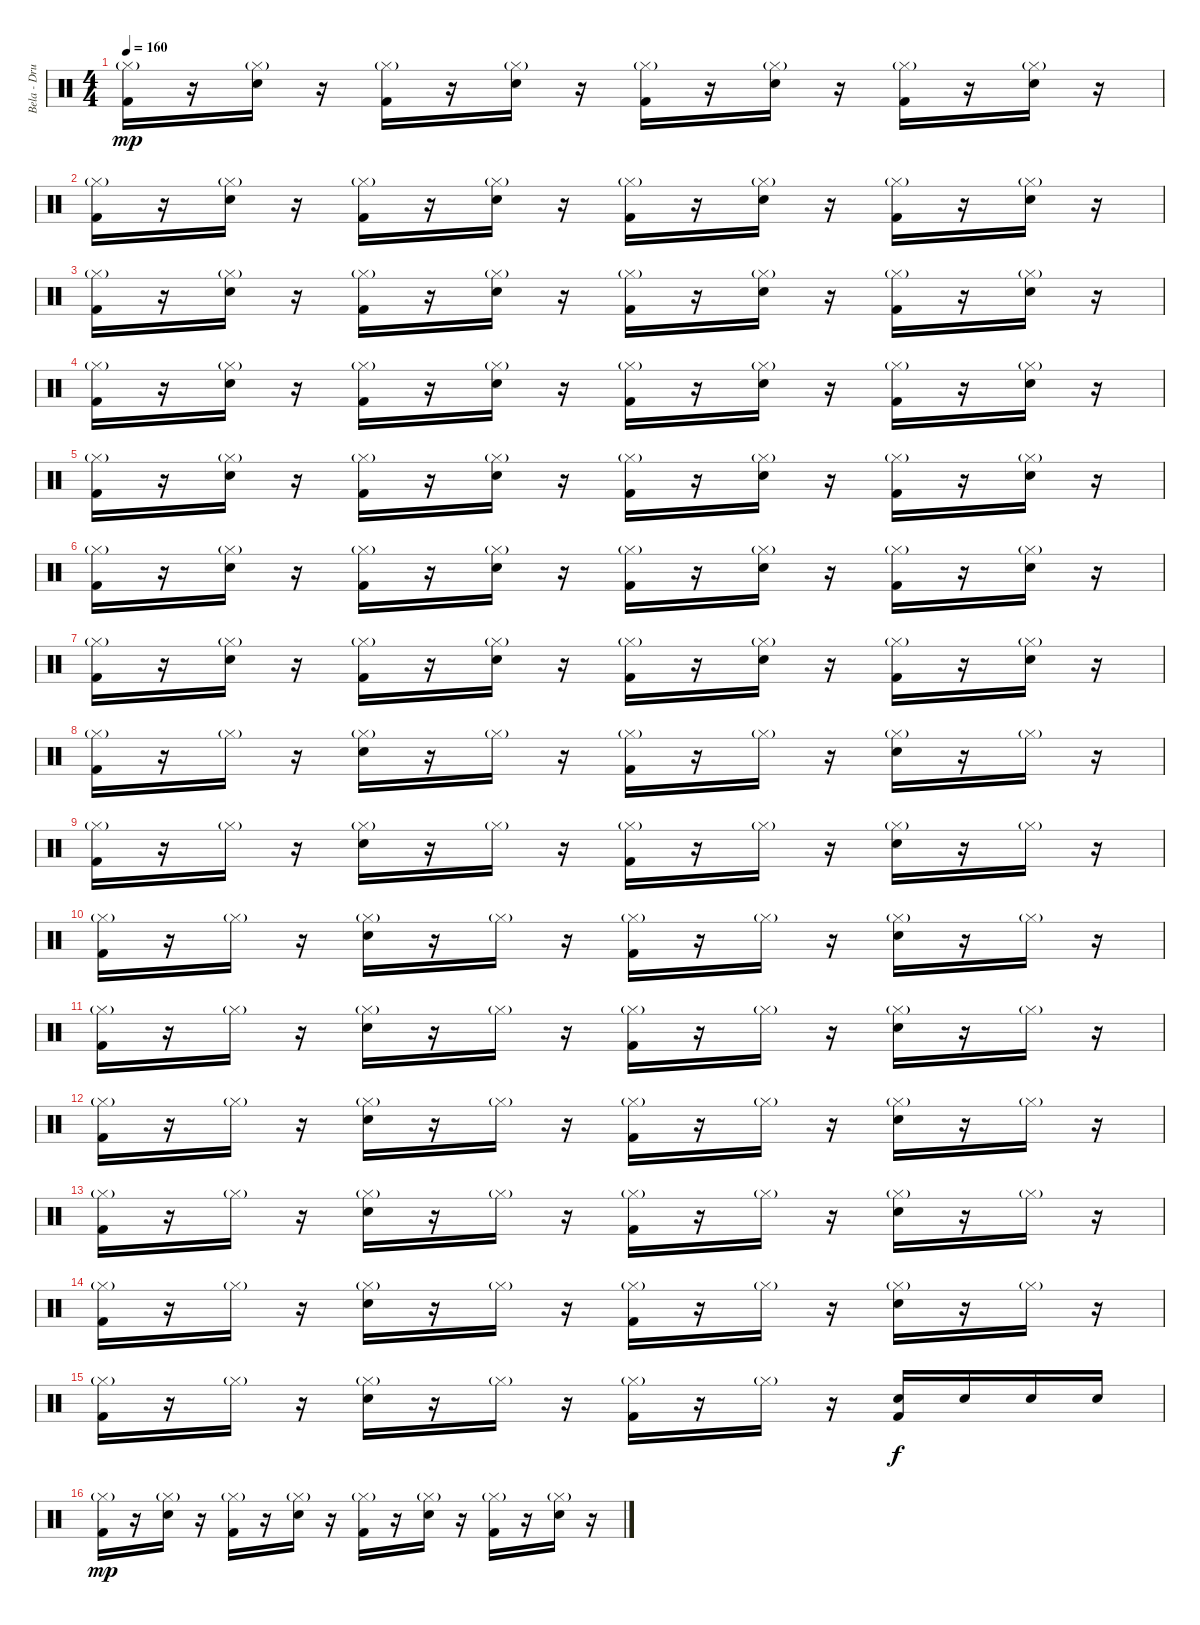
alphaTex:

\track ("Bela - Drums" "Bela - Dru") {instrument percussion}
\staff {score}
\articulation defaults
\ts (4 4)
\tempo 160
\clef neutral
\ks c
("Hi-Hat (closed)"{g} "Kick (hit) 2").16{dy mp} r.16 ("Hi-Hat (closed)"{g} "Electric Snare (hit)").16 r.16 ("Hi-Hat (closed)"{g} "Kick (hit) 2").16 r.16 ("Hi-Hat (closed)"{g} "Electric Snare (hit)").16 r.16 ("Hi-Hat (closed)"{g} "Kick (hit) 2").16 r.16 ("Hi-Hat (closed)"{g} "Electric Snare (hit)").16 r.16 ("Hi-Hat (closed)"{g} "Kick (hit) 2").16 r.16 ("Hi-Hat (closed)"{g} "Electric Snare (hit)").16 r.16 |
("Hi-Hat (closed)"{g} "Kick (hit) 2").16 r.16 ("Hi-Hat (closed)"{g} "Electric Snare (hit)").16 r.16 ("Hi-Hat (closed)"{g} "Kick (hit) 2").16 r.16 ("Hi-Hat (closed)"{g} "Electric Snare (hit)").16 r.16 ("Hi-Hat (closed)"{g} "Kick (hit) 2").16 r.16 ("Hi-Hat (closed)"{g} "Electric Snare (hit)").16 r.16 ("Hi-Hat (closed)"{g} "Kick (hit) 2").16 r.16 ("Hi-Hat (closed)"{g} "Electric Snare (hit)").16 r.16 |
("Hi-Hat (closed)"{g} "Kick (hit) 2").16 r.16 ("Hi-Hat (closed)"{g} "Electric Snare (hit)").16 r.16 ("Hi-Hat (closed)"{g} "Kick (hit) 2").16 r.16 ("Hi-Hat (closed)"{g} "Electric Snare (hit)").16 r.16 ("Hi-Hat (closed)"{g} "Kick (hit) 2").16 r.16 ("Hi-Hat (closed)"{g} "Electric Snare (hit)").16 r.16 ("Hi-Hat (closed)"{g} "Kick (hit) 2").16 r.16 ("Hi-Hat (closed)"{g} "Electric Snare (hit)").16 r.16 |
("Hi-Hat (closed)"{g} "Kick (hit) 2").16 r.16 ("Hi-Hat (closed)"{g} "Electric Snare (hit)").16 r.16 ("Hi-Hat (closed)"{g} "Kick (hit) 2").16 r.16 ("Hi-Hat (closed)"{g} "Electric Snare (hit)").16 r.16 ("Hi-Hat (closed)"{g} "Kick (hit) 2").16 r.16 ("Hi-Hat (closed)"{g} "Electric Snare (hit)").16 r.16 ("Hi-Hat (closed)"{g} "Kick (hit) 2").16 r.16 ("Hi-Hat (closed)"{g} "Electric Snare (hit)").16 r.16 |
("Hi-Hat (closed)"{g} "Kick (hit) 2").16 r.16 ("Hi-Hat (closed)"{g} "Electric Snare (hit)").16 r.16 ("Hi-Hat (closed)"{g} "Kick (hit) 2").16 r.16 ("Hi-Hat (closed)"{g} "Electric Snare (hit)").16 r.16 ("Hi-Hat (closed)"{g} "Kick (hit) 2").16 r.16 ("Hi-Hat (closed)"{g} "Electric Snare (hit)").16 r.16 ("Hi-Hat (closed)"{g} "Kick (hit) 2").16 r.16 ("Hi-Hat (closed)"{g} "Electric Snare (hit)").16 r.16 |
("Hi-Hat (closed)"{g} "Kick (hit) 2").16 r.16 ("Hi-Hat (closed)"{g} "Electric Snare (hit)").16 r.16 ("Hi-Hat (closed)"{g} "Kick (hit) 2").16 r.16 ("Hi-Hat (closed)"{g} "Electric Snare (hit)").16 r.16 ("Hi-Hat (closed)"{g} "Kick (hit) 2").16 r.16 ("Hi-Hat (closed)"{g} "Electric Snare (hit)").16 r.16 ("Hi-Hat (closed)"{g} "Kick (hit) 2").16 r.16 ("Hi-Hat (closed)"{g} "Electric Snare (hit)").16 r.16 |
("Hi-Hat (closed)"{g} "Kick (hit) 2").16 r.16 ("Hi-Hat (closed)"{g} "Electric Snare (hit)").16 r.16 ("Hi-Hat (closed)"{g} "Kick (hit) 2").16 r.16 ("Hi-Hat (closed)"{g} "Electric Snare (hit)").16 r.16 ("Hi-Hat (closed)"{g} "Kick (hit) 2").16 r.16 ("Hi-Hat (closed)"{g} "Electric Snare (hit)").16 r.16 ("Hi-Hat (closed)"{g} "Kick (hit) 2").16 r.16 ("Hi-Hat (closed)"{g} "Electric Snare (hit)").16 r.16 |
("Hi-Hat (closed)"{g} "Kick (hit) 2").16 r.16 "Hi-Hat (closed)"{g}.16 r.16 ("Hi-Hat (closed)"{g} "Electric Snare (hit)").16 r.16 "Hi-Hat (closed)"{g}.16 r.16 ("Hi-Hat (closed)"{g} "Kick (hit) 2").16 r.16 "Hi-Hat (closed)"{g}.16 r.16 ("Hi-Hat (closed)"{g} "Electric Snare (hit)").16 r.16 "Hi-Hat (closed)"{g}.16 r.16 |
("Hi-Hat (closed)"{g} "Kick (hit) 2").16 r.16 "Hi-Hat (closed)"{g}.16 r.16 ("Hi-Hat (closed)"{g} "Electric Snare (hit)").16 r.16 "Hi-Hat (closed)"{g}.16 r.16 ("Hi-Hat (closed)"{g} "Kick (hit) 2").16 r.16 "Hi-Hat (closed)"{g}.16 r.16 ("Hi-Hat (closed)"{g} "Electric Snare (hit)").16 r.16 "Hi-Hat (closed)"{g}.16 r.16 |
("Hi-Hat (closed)"{g} "Kick (hit) 2").16 r.16 "Hi-Hat (closed)"{g}.16 r.16 ("Hi-Hat (closed)"{g} "Electric Snare (hit)").16 r.16 "Hi-Hat (closed)"{g}.16 r.16 ("Hi-Hat (closed)"{g} "Kick (hit) 2").16 r.16 "Hi-Hat (closed)"{g}.16 r.16 ("Hi-Hat (closed)"{g} "Electric Snare (hit)").16 r.16 "Hi-Hat (closed)"{g}.16 r.16 |
("Hi-Hat (closed)"{g} "Kick (hit) 2").16 r.16 "Hi-Hat (closed)"{g}.16 r.16 ("Hi-Hat (closed)"{g} "Electric Snare (hit)").16 r.16 "Hi-Hat (closed)"{g}.16 r.16 ("Hi-Hat (closed)"{g} "Kick (hit) 2").16 r.16 "Hi-Hat (closed)"{g}.16 r.16 ("Hi-Hat (closed)"{g} "Electric Snare (hit)").16 r.16 "Hi-Hat (closed)"{g}.16 r.16 |
("Hi-Hat (closed)"{g} "Kick (hit) 2").16 r.16 "Hi-Hat (closed)"{g}.16 r.16 ("Hi-Hat (closed)"{g} "Electric Snare (hit)").16 r.16 "Hi-Hat (closed)"{g}.16 r.16 ("Hi-Hat (closed)"{g} "Kick (hit) 2").16 r.16 "Hi-Hat (closed)"{g}.16 r.16 ("Hi-Hat (closed)"{g} "Electric Snare (hit)").16 r.16 "Hi-Hat (closed)"{g}.16 r.16 |
("Hi-Hat (closed)"{g} "Kick (hit) 2").16 r.16 "Hi-Hat (closed)"{g}.16 r.16 ("Hi-Hat (closed)"{g} "Electric Snare (hit)").16 r.16 "Hi-Hat (closed)"{g}.16 r.16 ("Hi-Hat (closed)"{g} "Kick (hit) 2").16 r.16 "Hi-Hat (closed)"{g}.16 r.16 ("Hi-Hat (closed)"{g} "Electric Snare (hit)").16 r.16 "Hi-Hat (closed)"{g}.16 r.16 |
("Hi-Hat (closed)"{g} "Kick (hit) 2").16 r.16 "Hi-Hat (closed)"{g}.16 r.16 ("Hi-Hat (closed)"{g} "Electric Snare (hit)").16 r.16 "Hi-Hat (closed)"{g}.16 r.16 ("Hi-Hat (closed)"{g} "Kick (hit) 2").16 r.16 "Hi-Hat (closed)"{g}.16 r.16 ("Hi-Hat (closed)"{g} "Electric Snare (hit)").16 r.16 "Hi-Hat (closed)"{g}.16 r.16 |
("Hi-Hat (closed)"{g} "Kick (hit) 2").16 r.16 "Hi-Hat (closed)"{g}.16 r.16 ("Hi-Hat (closed)"{g} "Electric Snare (hit)").16 r.16 "Hi-Hat (closed)"{g}.16 r.16 ("Hi-Hat (closed)"{g} "Kick (hit) 2").16 r.16 "Hi-Hat (closed)"{g}.16 r.16 ("Electric Snare (hit)" "Kick (hit) 2").16{dy f} "Electric Snare (hit)".16 "Electric Snare (hit)".16 "Electric Snare (hit)".16 |
("Hi-Hat (closed)"{g} "Kick (hit) 2").16{dy mp} r.16 ("Hi-Hat (closed)"{g} "Electric Snare (hit)").16 r.16 ("Hi-Hat (closed)"{g} "Kick (hit) 2").16 r.16 ("Hi-Hat (closed)"{g} "Electric Snare (hit)").16 r.16 ("Hi-Hat (closed)"{g} "Kick (hit) 2").16 r.16 ("Hi-Hat (closed)"{g} "Electric Snare (hit)").16 r.16 ("Hi-Hat (closed)"{g} "Kick (hit) 2").16 r.16 ("Hi-Hat (closed)"{g} "Electric Snare (hit)").16 r.16
